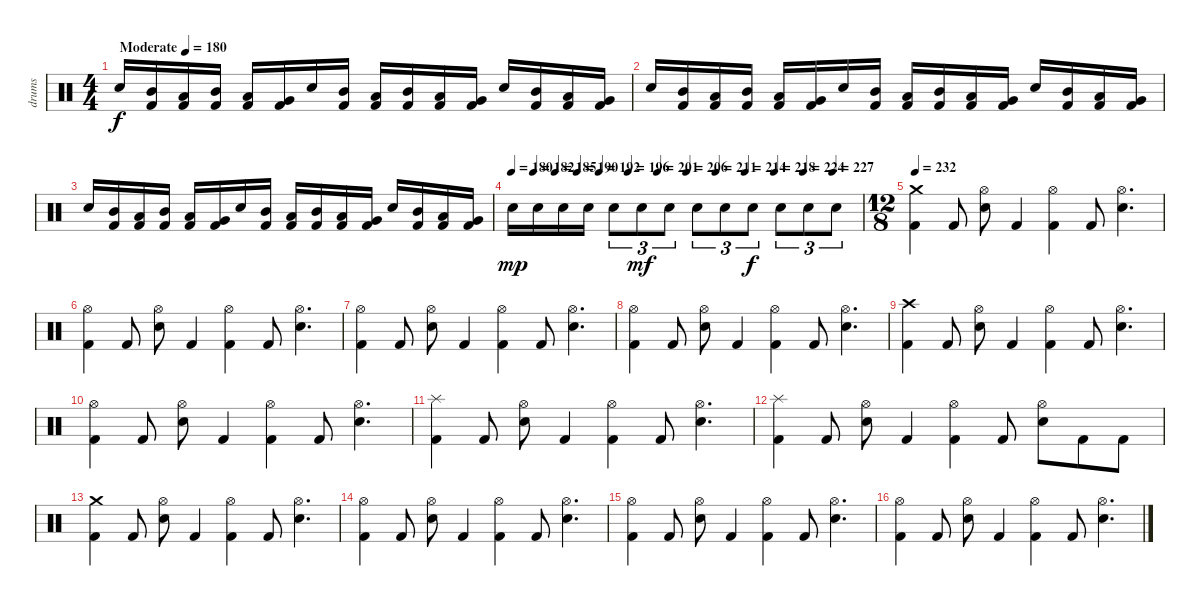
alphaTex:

\track ("drums" "drums") {instrument percussion}
\staff {score}
\articulation defaults
\ts (4 4)
\tempo (180 "Moderate")
\clef neutral
\ks c "Electric Snare (hit)".16{dy f}
("Kick (hit) 2" "Mid Tom (hit)").16 ("Kick (hit) 2" "Low Tom (hit)").16 ("Kick (hit) 2" "Mid Tom (hit)").16 ("Low Tom (hit)" "Kick (hit) 2").16 ("Very Low Tom (hit)" "Kick (hit) 2").16 "Electric Snare (hit)".16 ("Mid Tom (hit)" "Kick (hit) 2").16 ("Low Tom (hit)" "Kick (hit) 2").16 ("Mid Tom (hit)" "Kick (hit) 2").16 ("Low Tom (hit)" "Kick (hit) 2").16 ("Very Low Tom (hit)" "Kick (hit) 2").16 "Electric Snare (hit)".16 ("Mid Tom (hit)" "Kick (hit) 2").16 ("Low Tom (hit)" "Kick (hit) 2").16 ("Very Low Tom (hit)" "Kick (hit) 2").16 |
"Electric Snare (hit)".16 ("Kick (hit) 2" "Mid Tom (hit)").16 ("Kick (hit) 2" "Low Tom (hit)").16 ("Kick (hit) 2" "Mid Tom (hit)").16 ("Low Tom (hit)" "Kick (hit) 2").16 ("Very Low Tom (hit)" "Kick (hit) 2").16 "Electric Snare (hit)".16 ("Mid Tom (hit)" "Kick (hit) 2").16 ("Low Tom (hit)" "Kick (hit) 2").16 ("Mid Tom (hit)" "Kick (hit) 2").16 ("Low Tom (hit)" "Kick (hit) 2").16 ("Very Low Tom (hit)" "Kick (hit) 2").16 "Electric Snare (hit)".16 ("Mid Tom (hit)" "Kick (hit) 2").16 ("Low Tom (hit)" "Kick (hit) 2").16 ("Very Low Tom (hit)" "Kick (hit) 2").16 |
"Electric Snare (hit)".16 ("Kick (hit) 2" "Mid Tom (hit)").16 ("Kick (hit) 2" "Low Tom (hit)").16 ("Kick (hit) 2" "Mid Tom (hit)").16 ("Low Tom (hit)" "Kick (hit) 2").16 ("Very Low Tom (hit)" "Kick (hit) 2").16 "Electric Snare (hit)".16 ("Mid Tom (hit)" "Kick (hit) 2").16 ("Low Tom (hit)" "Kick (hit) 2").16 ("Mid Tom (hit)" "Kick (hit) 2").16 ("Low Tom (hit)" "Kick (hit) 2").16 ("Very Low Tom (hit)" "Kick (hit) 2").16 "Electric Snare (hit)".16 ("Mid Tom (hit)" "Kick (hit) 2").16 ("Low Tom (hit)" "Kick (hit) 2").16 ("Very Low Tom (hit)" "Kick (hit) 2").16 |
\tempo 180
\tempo (182 0.0625)
\tempo (185 0.125)
\tempo (190 0.1875)
\tempo (192 0.25)
\tempo (196 0.3333333333333333)
\tempo (201 0.4166666666666667)
\tempo (206 0.5)
\tempo (211 0.5833333333333334)
\tempo (214 0.6666666666666666)
\tempo (218 0.75)
\tempo (224 0.8333333333333334)
\tempo (227 0.9166666666666666)
"Electric Snare (hit)".16{dy mp} "Electric Snare (hit)".16 "Electric Snare (hit)".16 "Electric Snare (hit)".16 "Electric Snare (hit)".8{tu (3 2)} "Electric Snare (hit)".8{tu (3 2) dy mf} "Electric Snare (hit)".8{tu (3 2)} "Electric Snare (hit)".8{tu (3 2)} "Electric Snare (hit)".8{tu (3 2)} "Electric Snare (hit)".8{tu (3 2) dy f} "Electric Snare (hit)".8{tu (3 2)} "Electric Snare (hit)".8{tu (3 2)} "Electric Snare (hit)".8{tu (3 2)} |
\ts (12 8)
\tempo 232
("Kick (hit) 2" "Crash medium (hit)").4 "Kick (hit) 2".8 ("Electric Snare (hit)" "Hi-Hat (open)").8 "Kick (hit) 2".4 ("Kick (hit) 2" "Hi-Hat (open)").4 "Kick (hit) 2".8 ("Electric Snare (hit)" "Hi-Hat (open)").4{d} |
("Hi-Hat (open)" "Kick (hit) 2").4 "Kick (hit) 2".8 ("Hi-Hat (open)" "Electric Snare (hit)").8 "Kick (hit) 2".4 ("Hi-Hat (open)" "Kick (hit) 2").4 "Kick (hit) 2".8 ("Hi-Hat (open)" "Electric Snare (hit)").4{d} |
("Hi-Hat (open)" "Kick (hit) 2").4 "Kick (hit) 2".8 ("Hi-Hat (open)" "Electric Snare (hit)").8 "Kick (hit) 2".4 ("Hi-Hat (open)" "Kick (hit) 2").4 "Kick (hit) 2".8 ("Hi-Hat (open)" "Electric Snare (hit)").4{d} |
("Hi-Hat (open)" "Kick (hit) 2").4 "Kick (hit) 2".8 ("Hi-Hat (open)" "Electric Snare (hit)").8 "Kick (hit) 2".4 ("Hi-Hat (open)" "Kick (hit) 2").4 "Kick (hit) 2".8 ("Hi-Hat (open)" "Electric Snare (hit)").4{d} |
("Kick (hit) 2" "Crash high (hit)").4 "Kick (hit) 2".8 ("Electric Snare (hit)" "Hi-Hat (open)").8 "Kick (hit) 2".4 ("Kick (hit) 2" "Hi-Hat (open)").4 "Kick (hit) 2".8 ("Electric Snare (hit)" "Hi-Hat (open)").4{d} |
("Hi-Hat (open)" "Kick (hit) 2").4 "Kick (hit) 2".8 ("Hi-Hat (open)" "Electric Snare (hit)").8 "Kick (hit) 2".4 ("Hi-Hat (open)" "Kick (hit) 2").4 "Kick (hit) 2".8 ("Hi-Hat (open)" "Electric Snare (hit)").4{d} |
("Splash (hit)" "Kick (hit) 2").4 "Kick (hit) 2".8 ("Hi-Hat (open)" "Electric Snare (hit)").8 "Kick (hit) 2".4 ("Hi-Hat (open)" "Kick (hit) 2").4 "Kick (hit) 2".8 ("Hi-Hat (open)" "Electric Snare (hit)").4{d} |
("Splash (hit)" "Kick (hit) 2").4 "Kick (hit) 2".8 ("Hi-Hat (open)" "Electric Snare (hit)").8 "Kick (hit) 2".4 ("Hi-Hat (open)" "Kick (hit) 2").4 "Kick (hit) 2".8 ("Electric Snare (hit)" "Hi-Hat (open)").8 "Kick (hit) 2".8 "Kick (hit) 2".8 |
("Kick (hit) 2" "Crash medium (hit)").4 "Kick (hit) 2".8 ("Electric Snare (hit)" "Hi-Hat (open)").8 "Kick (hit) 2".4 ("Kick (hit) 2" "Hi-Hat (open)").4 "Kick (hit) 2".8 ("Electric Snare (hit)" "Hi-Hat (open)").4{d} |
("Hi-Hat (open)" "Kick (hit) 2").4 "Kick (hit) 2".8 ("Hi-Hat (open)" "Electric Snare (hit)").8 "Kick (hit) 2".4 ("Hi-Hat (open)" "Kick (hit) 2").4 "Kick (hit) 2".8 ("Hi-Hat (open)" "Electric Snare (hit)").4{d} |
("Hi-Hat (open)" "Kick (hit) 2").4 "Kick (hit) 2".8 ("Hi-Hat (open)" "Electric Snare (hit)").8 "Kick (hit) 2".4 ("Hi-Hat (open)" "Kick (hit) 2").4 "Kick (hit) 2".8 ("Hi-Hat (open)" "Electric Snare (hit)").4{d} |
("Hi-Hat (open)" "Kick (hit) 2").4 "Kick (hit) 2".8 ("Hi-Hat (open)" "Electric Snare (hit)").8 "Kick (hit) 2".4 ("Hi-Hat (open)" "Kick (hit) 2").4 "Kick (hit) 2".8 ("Hi-Hat (open)" "Electric Snare (hit)").4{d}
